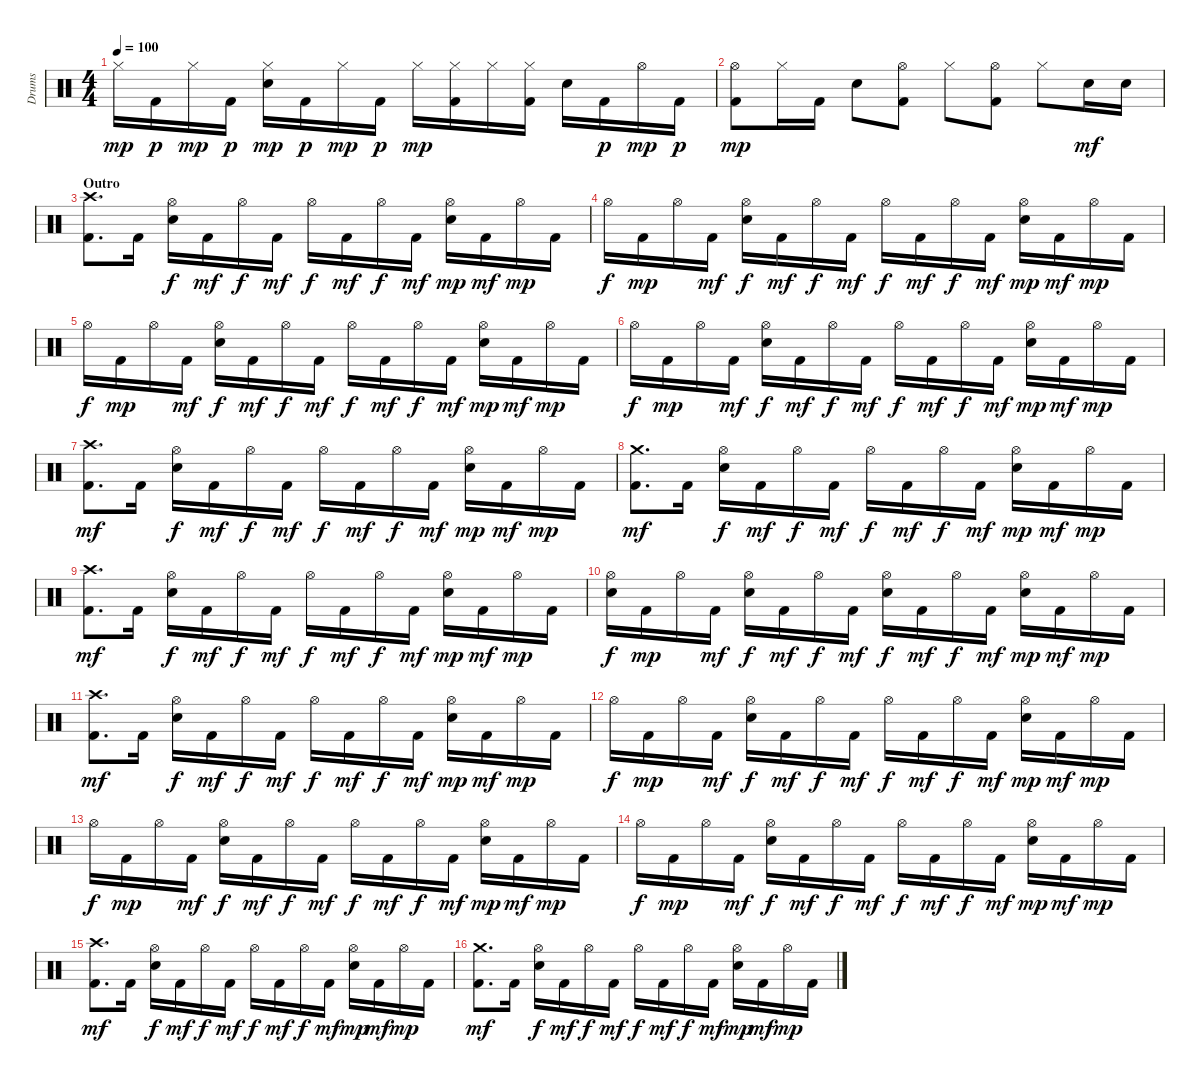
\track ("Drums" "Drums") {instrument percussion}
\staff {score}
\articulation defaults
\ts (4 4)
\tempo 100
\clef neutral
\ks c "Hi-Hat (closed)".16{dy mp} "Kick (hit) 2".16{dy p} "Hi-Hat (closed)".16{dy mp} "Kick (hit) 2".16{dy p}
("Snare (hit) 2" "Hi-Hat (closed)").16{dy mp} "Kick (hit) 2".16{dy p} "Hi-Hat (closed)".16{dy mp} "Kick (hit) 2".16{dy p} "Hi-Hat (closed)".16{dy mp} ("Kick (hit) 2" "Hi-Hat (closed)").16 "Hi-Hat (closed)".16 ("Kick (hit) 2" "Hi-Hat (closed)").16 "Snare (hit) 2".16 "Kick (hit) 2".16{dy p} "Hi-Hat (open)".16{dy mp} "Kick (hit) 2".16{dy p} |
("Kick (hit) 2" "Hi-Hat (open)").8{dy mp} "Hi-Hat (closed)".16 "Kick (hit) 2".16 "Snare (hit) 2".8 ("Kick (hit) 2" "Hi-Hat (open)").8 "Hi-Hat (closed)".8 ("Kick (hit) 2" "Hi-Hat (open)").8 "Hi-Hat (closed)".8 "Snare (hit) 2".16{dy mf} "Snare (hit) 2".16 |
\section ("" "Outro")
("Kick (hit) 2" "Crash high (hit)").8{d} "Kick (hit) 2".16 ("Snare (hit) 2" "Hi-Hat (open)").16{dy f} "Kick (hit) 2".16{dy mf} "Hi-Hat (open)".16{dy f} "Kick (hit) 2".16{dy mf} "Hi-Hat (open)".16{dy f} "Kick (hit) 2".16{dy mf} "Hi-Hat (open)".16{dy f} "Kick (hit) 2".16{dy mf} ("Snare (hit) 2" "Hi-Hat (open)").16{dy mp} "Kick (hit) 2".16{dy mf} "Hi-Hat (open)".16{dy mp} "Kick (hit) 2".16 |
"Hi-Hat (open)".16{dy f} "Kick (hit) 2".16{dy mp} "Hi-Hat (open)".16 "Kick (hit) 2".16{dy mf} ("Snare (hit) 2" "Hi-Hat (open)").16{dy f} "Kick (hit) 2".16{dy mf} "Hi-Hat (open)".16{dy f} "Kick (hit) 2".16{dy mf} "Hi-Hat (open)".16{dy f} "Kick (hit) 2".16{dy mf} "Hi-Hat (open)".16{dy f} "Kick (hit) 2".16{dy mf} ("Snare (hit) 2" "Hi-Hat (open)").16{dy mp} "Kick (hit) 2".16{dy mf} "Hi-Hat (open)".16{dy mp} "Kick (hit) 2".16 |
"Hi-Hat (open)".16{dy f} "Kick (hit) 2".16{dy mp} "Hi-Hat (open)".16 "Kick (hit) 2".16{dy mf} ("Snare (hit) 2" "Hi-Hat (open)").16{dy f} "Kick (hit) 2".16{dy mf} "Hi-Hat (open)".16{dy f} "Kick (hit) 2".16{dy mf} "Hi-Hat (open)".16{dy f} "Kick (hit) 2".16{dy mf} "Hi-Hat (open)".16{dy f} "Kick (hit) 2".16{dy mf} ("Snare (hit) 2" "Hi-Hat (open)").16{dy mp} "Kick (hit) 2".16{dy mf} "Hi-Hat (open)".16{dy mp} "Kick (hit) 2".16 |
"Hi-Hat (open)".16{dy f} "Kick (hit) 2".16{dy mp} "Hi-Hat (open)".16 "Kick (hit) 2".16{dy mf} ("Snare (hit) 2" "Hi-Hat (open)").16{dy f} "Kick (hit) 2".16{dy mf} "Hi-Hat (open)".16{dy f} "Kick (hit) 2".16{dy mf} "Hi-Hat (open)".16{dy f} "Kick (hit) 2".16{dy mf} "Hi-Hat (open)".16{dy f} "Kick (hit) 2".16{dy mf} ("Snare (hit) 2" "Hi-Hat (open)").16{dy mp} "Kick (hit) 2".16{dy mf} "Hi-Hat (open)".16{dy mp} "Kick (hit) 2".16 |
("Kick (hit) 2" "Crash high (hit)").8{d dy mf} "Kick (hit) 2".16 ("Snare (hit) 2" "Hi-Hat (open)").16{dy f} "Kick (hit) 2".16{dy mf} "Hi-Hat (open)".16{dy f} "Kick (hit) 2".16{dy mf} "Hi-Hat (open)".16{dy f} "Kick (hit) 2".16{dy mf} "Hi-Hat (open)".16{dy f} "Kick (hit) 2".16{dy mf} ("Snare (hit) 2" "Hi-Hat (open)").16{dy mp} "Kick (hit) 2".16{dy mf} "Hi-Hat (open)".16{dy mp} "Kick (hit) 2".16 |
("Kick (hit) 2" "Crash medium (hit)").8{d dy mf} "Kick (hit) 2".16 ("Snare (hit) 2" "Hi-Hat (open)").16{dy f} "Kick (hit) 2".16{dy mf} "Hi-Hat (open)".16{dy f} "Kick (hit) 2".16{dy mf} "Hi-Hat (open)".16{dy f} "Kick (hit) 2".16{dy mf} "Hi-Hat (open)".16{dy f} "Kick (hit) 2".16{dy mf} ("Snare (hit) 2" "Hi-Hat (open)").16{dy mp} "Kick (hit) 2".16{dy mf} "Hi-Hat (open)".16{dy mp} "Kick (hit) 2".16 |
("Kick (hit) 2" "Crash high (hit)").8{d dy mf} "Kick (hit) 2".16 ("Snare (hit) 2" "Hi-Hat (open)").16{dy f} "Kick (hit) 2".16{dy mf} "Hi-Hat (open)".16{dy f} "Kick (hit) 2".16{dy mf} "Hi-Hat (open)".16{dy f} "Kick (hit) 2".16{dy mf} "Hi-Hat (open)".16{dy f} "Kick (hit) 2".16{dy mf} ("Snare (hit) 2" "Hi-Hat (open)").16{dy mp} "Kick (hit) 2".16{dy mf} "Hi-Hat (open)".16{dy mp} "Kick (hit) 2".16 |
("Snare (hit) 2" "Hi-Hat (open)").16{dy f} "Kick (hit) 2".16{dy mp} "Hi-Hat (open)".16 "Kick (hit) 2".16{dy mf} ("Snare (hit) 2" "Hi-Hat (open)").16{dy f} "Kick (hit) 2".16{dy mf} "Hi-Hat (open)".16{dy f} "Kick (hit) 2".16{dy mf} ("Snare (hit) 2" "Hi-Hat (open)").16{dy f} "Kick (hit) 2".16{dy mf} "Hi-Hat (open)".16{dy f} "Kick (hit) 2".16{dy mf} ("Snare (hit) 2" "Hi-Hat (open)").16{dy mp} "Kick (hit) 2".16{dy mf} "Hi-Hat (open)".16{dy mp} "Kick (hit) 2".16 |
("Kick (hit) 2" "Crash high (hit)").8{d dy mf} "Kick (hit) 2".16 ("Snare (hit) 2" "Hi-Hat (open)").16{dy f} "Kick (hit) 2".16{dy mf} "Hi-Hat (open)".16{dy f} "Kick (hit) 2".16{dy mf} "Hi-Hat (open)".16{dy f} "Kick (hit) 2".16{dy mf} "Hi-Hat (open)".16{dy f} "Kick (hit) 2".16{dy mf} ("Snare (hit) 2" "Hi-Hat (open)").16{dy mp} "Kick (hit) 2".16{dy mf} "Hi-Hat (open)".16{dy mp} "Kick (hit) 2".16 |
"Hi-Hat (open)".16{dy f} "Kick (hit) 2".16{dy mp} "Hi-Hat (open)".16 "Kick (hit) 2".16{dy mf} ("Snare (hit) 2" "Hi-Hat (open)").16{dy f} "Kick (hit) 2".16{dy mf} "Hi-Hat (open)".16{dy f} "Kick (hit) 2".16{dy mf} "Hi-Hat (open)".16{dy f} "Kick (hit) 2".16{dy mf} "Hi-Hat (open)".16{dy f} "Kick (hit) 2".16{dy mf} ("Snare (hit) 2" "Hi-Hat (open)").16{dy mp} "Kick (hit) 2".16{dy mf} "Hi-Hat (open)".16{dy mp} "Kick (hit) 2".16 |
"Hi-Hat (open)".16{dy f} "Kick (hit) 2".16{dy mp} "Hi-Hat (open)".16 "Kick (hit) 2".16{dy mf} ("Snare (hit) 2" "Hi-Hat (open)").16{dy f} "Kick (hit) 2".16{dy mf} "Hi-Hat (open)".16{dy f} "Kick (hit) 2".16{dy mf} "Hi-Hat (open)".16{dy f} "Kick (hit) 2".16{dy mf} "Hi-Hat (open)".16{dy f} "Kick (hit) 2".16{dy mf} ("Snare (hit) 2" "Hi-Hat (open)").16{dy mp} "Kick (hit) 2".16{dy mf} "Hi-Hat (open)".16{dy mp} "Kick (hit) 2".16 |
"Hi-Hat (open)".16{dy f volume 9} "Kick (hit) 2".16{dy mp} "Hi-Hat (open)".16 "Kick (hit) 2".16{dy mf} ("Snare (hit) 2" "Hi-Hat (open)").16{dy f} "Kick (hit) 2".16{dy mf} "Hi-Hat (open)".16{dy f} "Kick (hit) 2".16{dy mf} "Hi-Hat (open)".16{dy f} "Kick (hit) 2".16{dy mf} "Hi-Hat (open)".16{dy f} "Kick (hit) 2".16{dy mf} ("Snare (hit) 2" "Hi-Hat (open)").16{dy mp} "Kick (hit) 2".16{dy mf} "Hi-Hat (open)".16{dy mp} "Kick (hit) 2".16 |
("Kick (hit) 2" "Crash high (hit)").8{d dy mf} "Kick (hit) 2".16 ("Snare (hit) 2" "Hi-Hat (open)").16{dy f} "Kick (hit) 2".16{dy mf} "Hi-Hat (open)".16{dy f} "Kick (hit) 2".16{dy mf} "Hi-Hat (open)".16{dy f} "Kick (hit) 2".16{dy mf} "Hi-Hat (open)".16{dy f} "Kick (hit) 2".16{dy mf} ("Snare (hit) 2" "Hi-Hat (open)").16{dy mp} "Kick (hit) 2".16{dy mf} "Hi-Hat (open)".16{dy mp} "Kick (hit) 2".16 |
("Kick (hit) 2" "Crash medium (hit)").8{d dy mf volume 5} "Kick (hit) 2".16 ("Snare (hit) 2" "Hi-Hat (open)").16{dy f} "Kick (hit) 2".16{dy mf} "Hi-Hat (open)".16{dy f} "Kick (hit) 2".16{dy mf} "Hi-Hat (open)".16{dy f} "Kick (hit) 2".16{dy mf} "Hi-Hat (open)".16{dy f} "Kick (hit) 2".16{dy mf} ("Snare (hit) 2" "Hi-Hat (open)").16{dy mp} "Kick (hit) 2".16{dy mf} "Hi-Hat (open)".16{dy mp} "Kick (hit) 2".16
